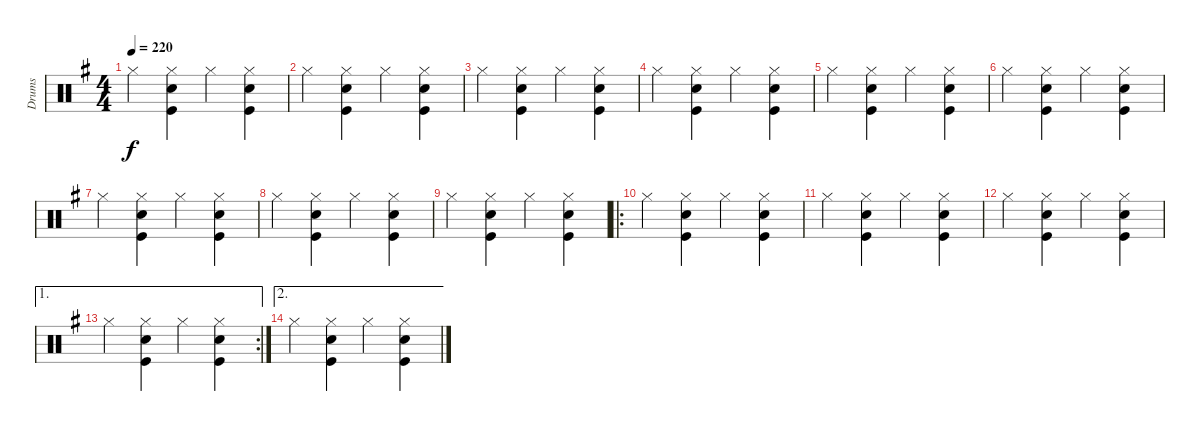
\track ("Drums" "Drums") {instrument percussion}
\staff {score}
\articulation defaults
\ts (4 4)
\tempo 220
\clef neutral
\ks g "Hi-Hat (closed)".4{dy f}
("Hi-Hat (closed)" "Snare (hit) 2" "Kick (hit)").4 "Hi-Hat (closed)".4 ("Hi-Hat (closed)" "Snare (hit) 2" "Kick (hit)").4 |
"Hi-Hat (closed)".4 ("Hi-Hat (closed)" "Snare (hit) 2" "Kick (hit)").4 "Hi-Hat (closed)".4 ("Hi-Hat (closed)" "Snare (hit) 2" "Kick (hit)").4 |
"Hi-Hat (closed)".4 ("Hi-Hat (closed)" "Snare (hit) 2" "Kick (hit)").4 "Hi-Hat (closed)".4 ("Hi-Hat (closed)" "Snare (hit) 2" "Kick (hit)").4 |
"Hi-Hat (closed)".4 ("Hi-Hat (closed)" "Snare (hit) 2" "Kick (hit)").4 "Hi-Hat (closed)".4 ("Hi-Hat (closed)" "Snare (hit) 2" "Kick (hit)").4 |
"Hi-Hat (closed)".4 ("Hi-Hat (closed)" "Snare (hit) 2" "Kick (hit)").4 "Hi-Hat (closed)".4 ("Hi-Hat (closed)" "Snare (hit) 2" "Kick (hit)").4 |
"Hi-Hat (closed)".4 ("Hi-Hat (closed)" "Snare (hit) 2" "Kick (hit)").4 "Hi-Hat (closed)".4 ("Hi-Hat (closed)" "Snare (hit) 2" "Kick (hit)").4 |
"Hi-Hat (closed)".4 ("Hi-Hat (closed)" "Snare (hit) 2" "Kick (hit)").4 "Hi-Hat (closed)".4 ("Hi-Hat (closed)" "Snare (hit) 2" "Kick (hit)").4 |
"Hi-Hat (closed)".4 ("Hi-Hat (closed)" "Snare (hit) 2" "Kick (hit)").4 "Hi-Hat (closed)".4 ("Hi-Hat (closed)" "Snare (hit) 2" "Kick (hit)").4 |
"Hi-Hat (closed)".4 ("Hi-Hat (closed)" "Snare (hit) 2" "Kick (hit)").4 "Hi-Hat (closed)".4 ("Hi-Hat (closed)" "Snare (hit) 2" "Kick (hit)").4 |
\ro "Hi-Hat (closed)".4
("Hi-Hat (closed)" "Snare (hit) 2" "Kick (hit)").4 "Hi-Hat (closed)".4 ("Hi-Hat (closed)" "Snare (hit) 2" "Kick (hit)").4 |
"Hi-Hat (closed)".4 ("Hi-Hat (closed)" "Snare (hit) 2" "Kick (hit)").4 "Hi-Hat (closed)".4 ("Hi-Hat (closed)" "Snare (hit) 2" "Kick (hit)").4 |
"Hi-Hat (closed)".4 ("Hi-Hat (closed)" "Snare (hit) 2" "Kick (hit)").4 "Hi-Hat (closed)".4 ("Hi-Hat (closed)" "Snare (hit) 2" "Kick (hit)").4 |
\ae 1
\rc 2 "Hi-Hat (closed)".4
("Hi-Hat (closed)" "Snare (hit) 2" "Kick (hit)").4 "Hi-Hat (closed)".4 ("Hi-Hat (closed)" "Snare (hit) 2" "Kick (hit)").4 |
\ae 2 "Hi-Hat (closed)".4
("Hi-Hat (closed)" "Snare (hit) 2" "Kick (hit)").4 "Hi-Hat (closed)".4 ("Hi-Hat (closed)" "Snare (hit) 2" "Kick (hit)").4
